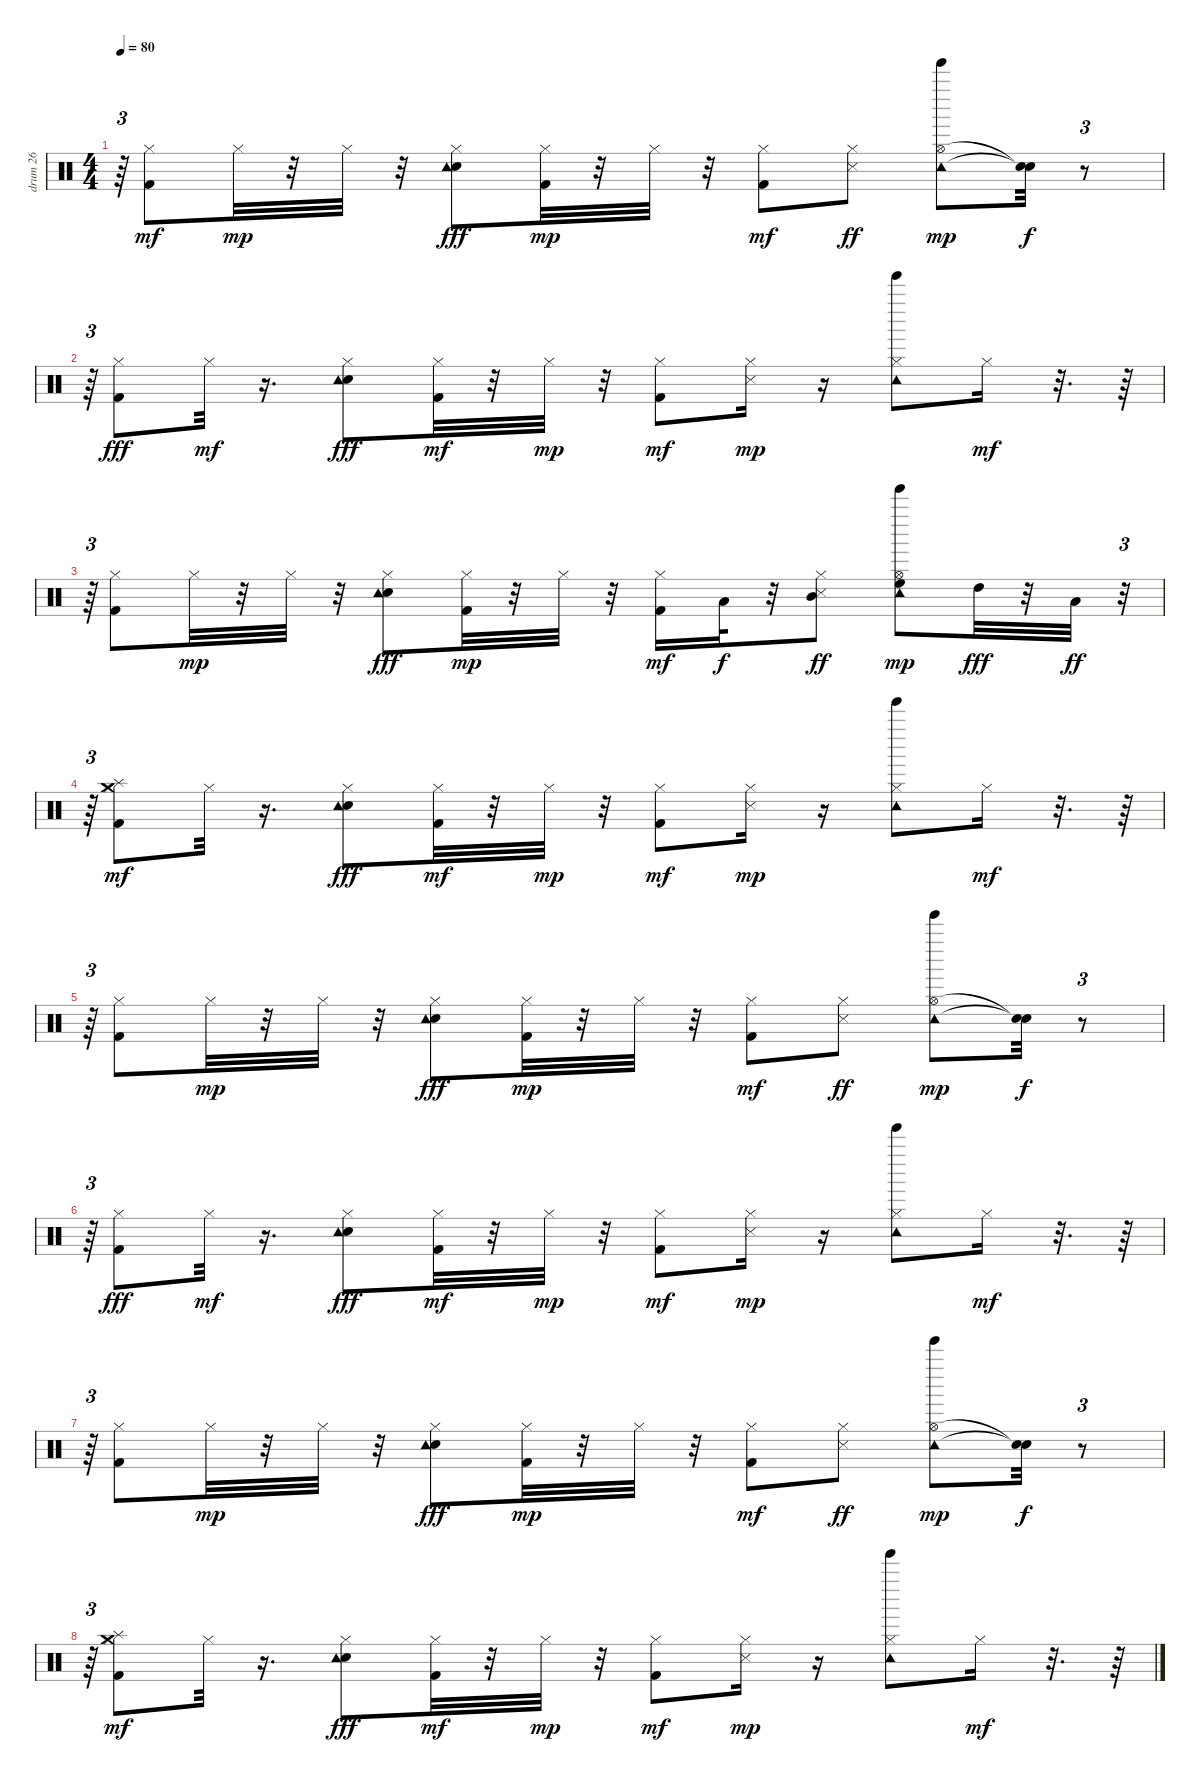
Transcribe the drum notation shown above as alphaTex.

\track ("drum 26" "drum 26") {instrument percussion}
\staff {score}
\articulation defaults
\ts (4 4)
\tempo 80
\clef neutral
\ks c
r.64{tu (3 2) dy mf} ("Kick (hit) 2" "Hi-Hat (closed)").8 "Hi-Hat (closed)".32{dy mp} r.32 "Hi-Hat (closed)".32 r.32 ("Hand Clap (hit)" "Hi-Hat (closed)" "Tambourine (hit)").8{dy fff} ("Kick (hit) 2" "Hi-Hat (closed)").32{dy mp} r.32 "Hi-Hat (closed)".32 r.32 ("Kick (hit) 2" "Hi-Hat (closed)").8{dy mf} ("Snare (side stick) 3" "Hi-Hat (closed)").8{dy ff} ("Hi-Hat (open)" "Tambourine (hit)" "Tinkle Bell (hit)").8{dy mp} ("Snare (hit)"{t} "Snare (hit)"{t}).32{dy f} r.8{tu (3 2)} |
r.64{tu (3 2)} ("Kick (hit) 2" "Hi-Hat (closed)").8{dy fff} "Hi-Hat (closed)".32{dy mf} r.16{d} ("Hand Clap (hit)" "Hi-Hat (closed)" "Tambourine (hit)").8{dy fff} ("Kick (hit) 2" "Hi-Hat (closed)").32{dy mf} r.32 "Hi-Hat (closed)".32{dy mp} r.32 ("Kick (hit) 2" "Hi-Hat (closed)").8{dy mf} ("Snare (side stick) 3" "Hi-Hat (closed)").16{dy mp} r.16 ("Hi-Hat (closed)" "Tambourine (hit)" "Tinkle Bell (hit)").8 "Hi-Hat (closed)".16{dy mf} r.32{d} r.64 |
r.64{tu (3 2)} ("Kick (hit) 2" "Hi-Hat (closed)").8 "Hi-Hat (closed)".32{dy mp} r.32 "Hi-Hat (closed)".32 r.32 ("Hand Clap (hit)" "Hi-Hat (closed)" "Tambourine (hit)").8{dy fff} ("Kick (hit) 2" "Hi-Hat (closed)").32{dy mp} r.32 "Hi-Hat (closed)".32 r.32 ("Kick (hit) 2" "Hi-Hat (closed)").16{dy mf} "Low Tom (hit)".32{dy f} r.32 ("Snare (side stick) 3" "Hi-Hat (closed)" "Mid Tom (hit)").8{dy ff} ("Hi-Hat (open)" "High Floor Tom (hit)" "Tambourine (hit)" "Tinkle Bell (hit)").8{dy mp} "High Tom (hit)".32{dy fff} r.32 "Low Tom (hit)".32{dy ff} r.32{tu (3 2)} |
r.64{tu (3 2)} ("Kick (hit) 2" "Hi-Hat (closed)" "Splash (hit)" "Crash medium (hit)").8{dy mf} "Hi-Hat (closed)".32 r.16{d} ("Hand Clap (hit)" "Hi-Hat (closed)" "Tambourine (hit)").8{dy fff} ("Kick (hit) 2" "Hi-Hat (closed)").32{dy mf} r.32 "Hi-Hat (closed)".32{dy mp} r.32 ("Kick (hit) 2" "Hi-Hat (closed)").8{dy mf} ("Snare (side stick) 3" "Hi-Hat (closed)").16{dy mp} r.16 ("Hi-Hat (closed)" "Tambourine (hit)" "Tinkle Bell (hit)").8 "Hi-Hat (closed)".16{dy mf} r.32{d} r.64 |
r.64{tu (3 2)} ("Kick (hit) 2" "Hi-Hat (closed)").8 "Hi-Hat (closed)".32{dy mp} r.32 "Hi-Hat (closed)".32 r.32 ("Hand Clap (hit)" "Hi-Hat (closed)" "Tambourine (hit)").8{dy fff} ("Kick (hit) 2" "Hi-Hat (closed)").32{dy mp} r.32 "Hi-Hat (closed)".32 r.32 ("Kick (hit) 2" "Hi-Hat (closed)").8{dy mf} ("Snare (side stick) 3" "Hi-Hat (closed)").8{dy ff} ("Hi-Hat (open)" "Tambourine (hit)" "Tinkle Bell (hit)").8{dy mp} ("Snare (hit)"{t} "Snare (hit)"{t}).32{dy f} r.8{tu (3 2)} |
r.64{tu (3 2)} ("Kick (hit) 2" "Hi-Hat (closed)").8{dy fff} "Hi-Hat (closed)".32{dy mf} r.16{d} ("Hand Clap (hit)" "Hi-Hat (closed)" "Tambourine (hit)").8{dy fff} ("Kick (hit) 2" "Hi-Hat (closed)").32{dy mf} r.32 "Hi-Hat (closed)".32{dy mp} r.32 ("Kick (hit) 2" "Hi-Hat (closed)").8{dy mf} ("Snare (side stick) 3" "Hi-Hat (closed)").16{dy mp} r.16 ("Hi-Hat (closed)" "Tambourine (hit)" "Tinkle Bell (hit)").8 "Hi-Hat (closed)".16{dy mf} r.32{d} r.64 |
r.64{tu (3 2)} ("Kick (hit) 2" "Hi-Hat (closed)").8 "Hi-Hat (closed)".32{dy mp} r.32 "Hi-Hat (closed)".32 r.32 ("Hand Clap (hit)" "Hi-Hat (closed)" "Tambourine (hit)").8{dy fff} ("Kick (hit) 2" "Hi-Hat (closed)").32{dy mp} r.32 "Hi-Hat (closed)".32 r.32 ("Kick (hit) 2" "Hi-Hat (closed)").8{dy mf} ("Snare (side stick) 3" "Hi-Hat (closed)").8{dy ff} ("Hi-Hat (open)" "Tambourine (hit)" "Tinkle Bell (hit)").8{dy mp} ("Snare (hit)"{t} "Snare (hit)"{t}).32{dy f} r.8{tu (3 2)} |
r.64{tu (3 2)} ("Kick (hit) 2" "Hi-Hat (closed)" "Splash (hit)" "Crash medium (hit)").8{dy mf} "Hi-Hat (closed)".32 r.16{d} ("Hand Clap (hit)" "Hi-Hat (closed)" "Tambourine (hit)").8{dy fff} ("Kick (hit) 2" "Hi-Hat (closed)").32{dy mf} r.32 "Hi-Hat (closed)".32{dy mp} r.32 ("Kick (hit) 2" "Hi-Hat (closed)").8{dy mf} ("Snare (side stick) 3" "Hi-Hat (closed)").16{dy mp} r.16 ("Hi-Hat (closed)" "Tambourine (hit)" "Tinkle Bell (hit)").8 "Hi-Hat (closed)".16{dy mf} r.32{d} r.64
